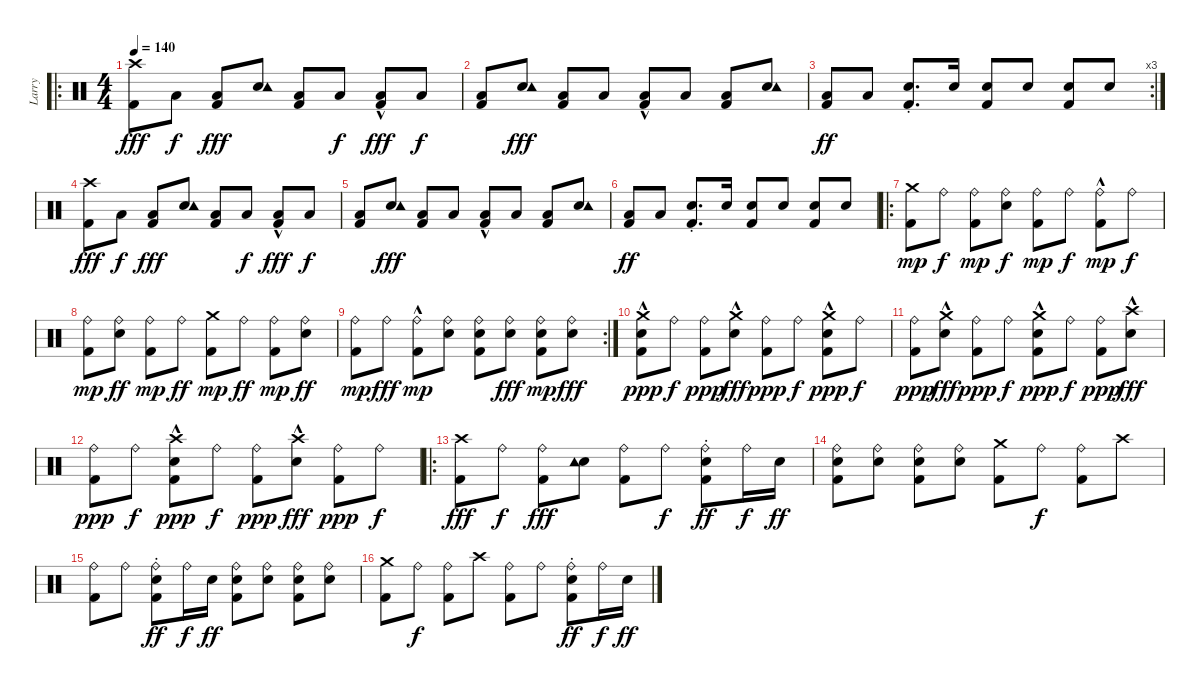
\track ("Larry" "Larry") {instrument percussion}
\staff {score}
\articulation defaults
\ro
\ts (4 4)
\tempo 140
\clef neutral
\ks c
("Crash high (hit)" "Kick (hit) 2").8{dy fff} "Low Floor Tom (hit)".8{dy f} ("Low Floor Tom (hit)" "Kick (hit) 2").8{dy fff} ("Electric Snare (hit)" "Tambourine (hit)").8 ("Low Floor Tom (hit)" "Kick (hit) 2").8 "Low Floor Tom (hit)".8{dy f} ("Low Floor Tom (hit)"{hac} "Kick (hit) 2").8{dy fff} "Low Floor Tom (hit)".8{dy f} |
("Low Floor Tom (hit)" "Kick (hit) 2").8 ("Electric Snare (hit)" "Tambourine (hit)").8{dy fff} ("Low Floor Tom (hit)" "Kick (hit) 2").8 "Low Floor Tom (hit)".8 ("Low Floor Tom (hit)"{hac} "Kick (hit) 2").8 "Low Floor Tom (hit)".8 ("Low Floor Tom (hit)" "Kick (hit) 2").8 ("Electric Snare (hit)" "Tambourine (hit)").8 |
\rc 3
("Low Floor Tom (hit)" "Kick (hit) 2").8{dy ff} "Low Floor Tom (hit)".8 ("Electric Snare (hit)"{st} "Kick (hit) 2").8{d} "Electric Snare (hit)".16 ("Electric Snare (hit)" "Kick (hit) 2").8 "Electric Snare (hit)".8 ("Electric Snare (hit)" "Kick (hit) 2").8 "Electric Snare (hit)".8 |
("Crash high (hit)" "Kick (hit) 2").8{dy fff} "Low Floor Tom (hit)".8{dy f} ("Low Floor Tom (hit)" "Kick (hit) 2").8{dy fff} ("Electric Snare (hit)" "Tambourine (hit)").8 ("Low Floor Tom (hit)" "Kick (hit) 2").8 "Low Floor Tom (hit)".8{dy f} ("Low Floor Tom (hit)"{hac} "Kick (hit) 2").8{dy fff} "Low Floor Tom (hit)".8{dy f} |
("Low Floor Tom (hit)" "Kick (hit) 2").8 ("Electric Snare (hit)" "Tambourine (hit)").8{dy fff} ("Low Floor Tom (hit)" "Kick (hit) 2").8 "Low Floor Tom (hit)".8 ("Low Floor Tom (hit)"{hac} "Kick (hit) 2").8 "Low Floor Tom (hit)".8 ("Low Floor Tom (hit)" "Kick (hit) 2").8 ("Electric Snare (hit)" "Tambourine (hit)").8 |
("Low Floor Tom (hit)" "Kick (hit) 2").8{dy ff} "Low Floor Tom (hit)".8 ("Electric Snare (hit)"{st} "Kick (hit) 2").8{d} "Electric Snare (hit)".16 ("Electric Snare (hit)" "Kick (hit) 2").8 "Electric Snare (hit)".8 ("Electric Snare (hit)" "Kick (hit) 2").8 "Electric Snare (hit)".8 |
\ro
("Crash medium (hit)" "Kick (hit) 2").8{dy mp} "Ride (bell)".8{dy f} ("Ride (bell)" "Kick (hit) 2").8{dy mp} ("Ride (bell)" "Electric Snare (hit)").8{dy f} ("Ride (bell)" "Kick (hit) 2").8{dy mp} "Ride (bell)".8{dy f} ("Ride (bell)"{hac} "Kick (hit) 2").8{dy mp} "Ride (bell)".8{dy f} |
("Ride (bell)" "Kick (hit) 2").8{dy mp} ("Ride (bell)" "Electric Snare (hit)").8{dy ff} ("Ride (bell)" "Kick (hit) 2").8{dy mp} "Ride (bell)".8{dy ff} ("Crash medium (hit)" "Kick (hit) 2").8{dy mp} "Ride (bell)".8{dy ff} ("Ride (bell)" "Kick (hit) 2").8{dy mp} ("Ride (bell)" "Electric Snare (hit)").8{dy ff} |
\rc 2
("Ride (bell)" "Kick (hit) 2").8{dy mp} "Ride (bell)".8{dy fff} ("Ride (bell)"{hac} "Kick (hit) 2").8{dy mp} ("Ride (bell)" "Electric Snare (hit)").8 ("Ride (bell)" "Electric Snare (hit)" "Kick (hit) 2").8 ("Ride (bell)" "Electric Snare (hit)").8{dy fff} ("Ride (bell)" "Electric Snare (hit)" "Kick (hit) 2").8{dy mp} ("Ride (bell)" "Electric Snare (hit)").8{dy fff} |
("Crash medium (hit)"{hac} "Electric Snare (hit)" "Kick (hit) 2").8{dy ppp} "Ride (bell)".8{dy f} ("Ride (bell)" "Kick (hit) 2").8{dy ppp} ("Crash medium (hit)"{hac} "Electric Snare (hit)").8{dy fff} ("Ride (bell)" "Kick (hit) 2").8{dy ppp} "Ride (bell)".8{dy f} ("Crash medium (hit)"{hac} "Electric Snare (hit)" "Kick (hit) 2").8{dy ppp} "Ride (bell)".8{dy f} |
("Ride (bell)" "Kick (hit) 2").8{dy ppp} ("Crash medium (hit)"{hac} "Electric Snare (hit)").8{dy fff} ("Ride (bell)" "Kick (hit) 2").8{dy ppp} "Ride (bell)".8{dy f} ("Crash medium (hit)"{hac} "Electric Snare (hit)" "Kick (hit) 2").8{dy ppp} "Ride (bell)".8{dy f} ("Ride (bell)" "Kick (hit) 2").8{dy ppp} ("Crash high (hit)"{hac} "Electric Snare (hit)").8{dy fff} |
("Ride (bell)" "Kick (hit) 2").8{dy ppp} "Ride (bell)".8{dy f} ("Crash high (hit)"{hac} "Electric Snare (hit)" "Kick (hit) 2").8{dy ppp} "Ride (bell)".8{dy f} ("Ride (bell)" "Kick (hit) 2").8{dy ppp} ("Crash high (hit)"{hac} "Electric Snare (hit)").8{dy fff} ("Ride (bell)" "Kick (hit) 2").8{dy ppp} "Ride (bell)".8{dy f} |
\ro
("Crash high (hit)" "Kick (hit) 2").8{dy fff} "Ride (bell)".8{dy f} ("Ride (bell)" "Kick (hit) 2").8{dy fff} ("Electric Snare (hit)" "Tambourine (hit)").8 ("Ride (bell)" "Kick (hit) 2").8 "Ride (bell)".8{dy f} ("Electric Snare (hit)"{st} "Kick (hit) 2" "Ride (bell)").8{dy ff} "Ride (bell)".16{dy f} "Electric Snare (hit)".16{dy ff} |
("Electric Snare (hit)" "Kick (hit) 2" "Ride (bell)").8 ("Electric Snare (hit)" "Ride (bell)").8 ("Electric Snare (hit)" "Kick (hit) 2" "Ride (bell)").8 ("Electric Snare (hit)" "Ride (bell)").8 ("Crash medium (hit)" "Kick (hit) 2").8 "Ride (bell)".8{dy f} ("Kick (hit) 2" "Ride (bell)").8 "Crash high (hit)".8 |
("Ride (bell)" "Kick (hit) 2").8 "Ride (bell)".8 ("Electric Snare (hit)"{st} "Kick (hit) 2" "Ride (bell)").8{dy ff} "Ride (bell)".16{dy f} "Electric Snare (hit)".16{dy ff} ("Electric Snare (hit)" "Kick (hit) 2" "Ride (bell)").8 ("Electric Snare (hit)" "Ride (bell)").8 ("Electric Snare (hit)" "Kick (hit) 2" "Ride (bell)").8 ("Electric Snare (hit)" "Ride (bell)").8 |
("Crash medium (hit)" "Kick (hit) 2").8 "Ride (bell)".8{dy f} ("Kick (hit) 2" "Ride (bell)").8 "Crash high (hit)".8 ("Ride (bell)" "Kick (hit) 2").8 "Ride (bell)".8 ("Electric Snare (hit)"{st} "Kick (hit) 2" "Ride (bell)").8{dy ff} "Ride (bell)".16{dy f} "Electric Snare (hit)".16{dy ff}
